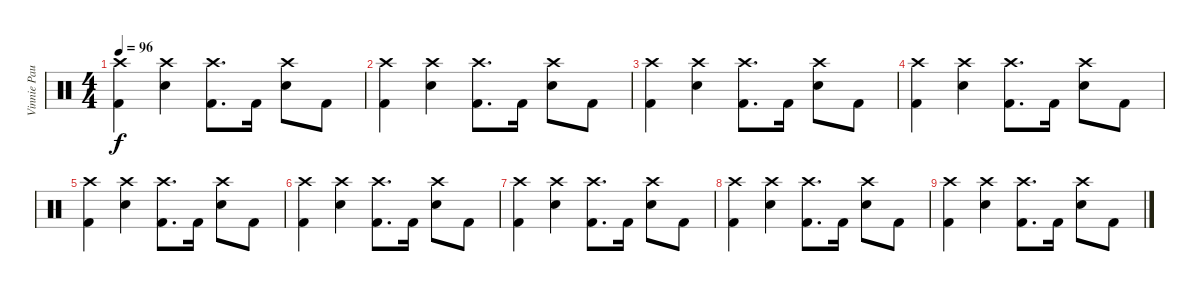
\track ("Vinnie Paul" "Vinnie Pau") {instrument percussion}
\staff {score}
\articulation defaults
\ts (4 4)
\tempo 96
\clef neutral
\ks c
("Crash high (hit)" "Kick (hit) 2").4{dy f} ("Crash high (hit)" "Snare (hit) 2").4 ("Crash high (hit)" "Kick (hit) 2").8{d} "Kick (hit) 2".16 ("Crash high (hit)" "Snare (hit) 2").8 "Kick (hit) 2".8 |
("Crash high (hit)" "Kick (hit) 2").4 ("Crash high (hit)" "Snare (hit) 2").4 ("Crash high (hit)" "Kick (hit) 2").8{d} "Kick (hit) 2".16 ("Crash high (hit)" "Snare (hit) 2").8 "Kick (hit) 2".8 |
("Crash high (hit)" "Kick (hit) 2").4 ("Crash high (hit)" "Snare (hit) 2").4 ("Crash high (hit)" "Kick (hit) 2").8{d} "Kick (hit) 2".16 ("Crash high (hit)" "Snare (hit) 2").8 "Kick (hit) 2".8 |
("Crash high (hit)" "Kick (hit) 2").4 ("Crash high (hit)" "Snare (hit) 2").4 ("Crash high (hit)" "Kick (hit) 2").8{d} "Kick (hit) 2".16 ("Crash high (hit)" "Snare (hit) 2").8 "Kick (hit) 2".8 |
("Crash high (hit)" "Kick (hit) 2").4 ("Crash high (hit)" "Snare (hit) 2").4 ("Crash high (hit)" "Kick (hit) 2").8{d} "Kick (hit) 2".16 ("Crash high (hit)" "Snare (hit) 2").8 "Kick (hit) 2".8 |
("Crash high (hit)" "Kick (hit) 2").4 ("Crash high (hit)" "Snare (hit) 2").4 ("Crash high (hit)" "Kick (hit) 2").8{d} "Kick (hit) 2".16 ("Crash high (hit)" "Snare (hit) 2").8 "Kick (hit) 2".8 |
("Crash high (hit)" "Kick (hit) 2").4 ("Crash high (hit)" "Snare (hit) 2").4 ("Crash high (hit)" "Kick (hit) 2").8{d} "Kick (hit) 2".16 ("Crash high (hit)" "Snare (hit) 2").8 "Kick (hit) 2".8 |
("Crash high (hit)" "Kick (hit) 2").4 ("Crash high (hit)" "Snare (hit) 2").4 ("Crash high (hit)" "Kick (hit) 2").8{d} "Kick (hit) 2".16 ("Crash high (hit)" "Snare (hit) 2").8 "Kick (hit) 2".8 |
("Crash high (hit)" "Kick (hit) 2").4 ("Crash high (hit)" "Snare (hit) 2").4 ("Crash high (hit)" "Kick (hit) 2").8{d} "Kick (hit) 2".16 ("Crash high (hit)" "Snare (hit) 2").8 "Kick (hit) 2".8
